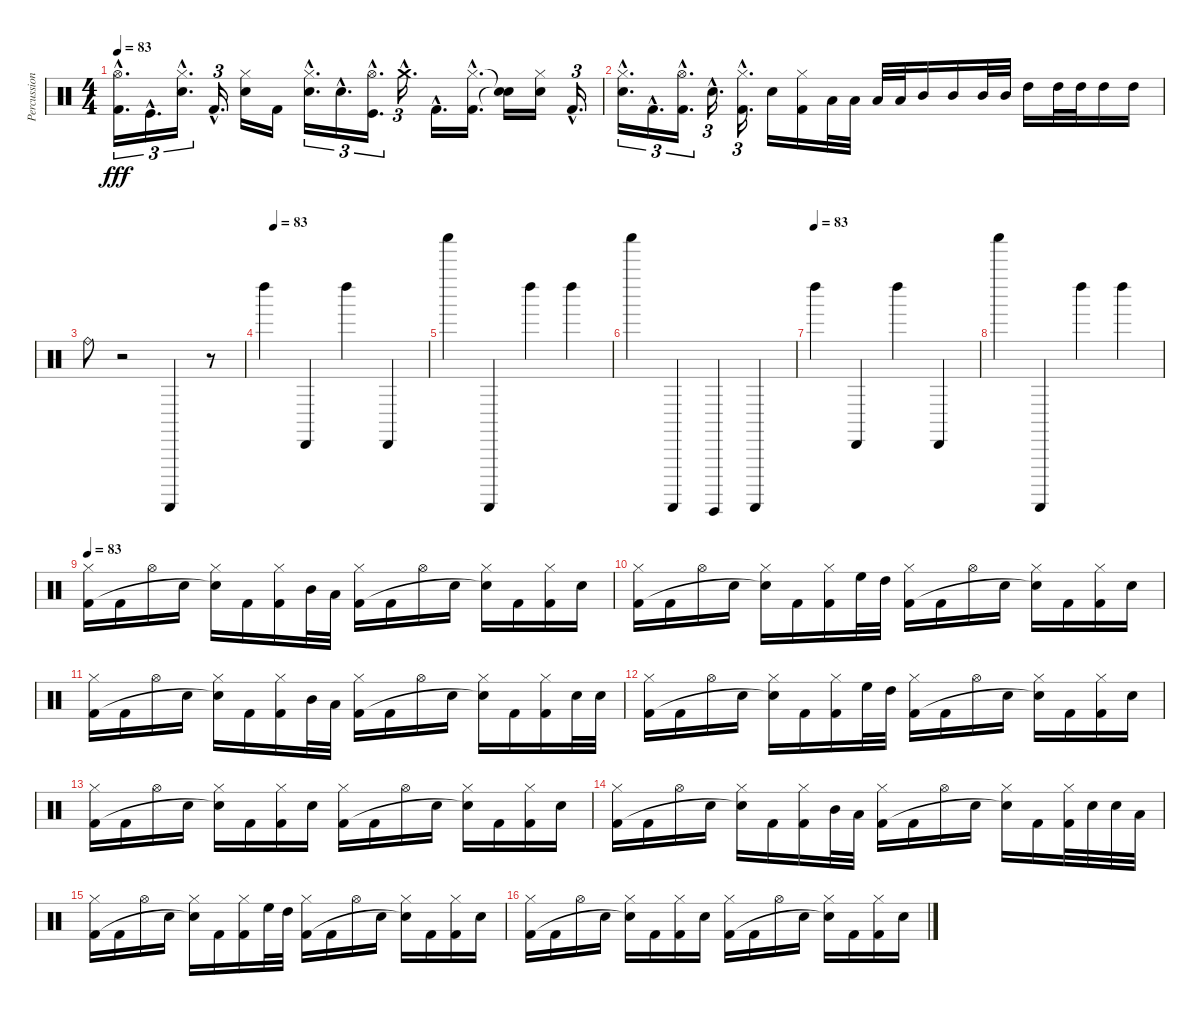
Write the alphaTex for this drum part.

\track ("Percussion" "Percussion") {instrument percussion}
\staff {score}
\articulation defaults
\ts (4 4)
\tempo 83
\clef neutral
\ks c
("Hi-Hat (open)"{hac} "Kick (hit) 2"{hac}).16{d tu (3 2) dy fff} "Kick (hit)"{hac}.16{d tu (3 2)} ("Hi-Hat (closed)"{hac} "Snare (hit) 2"{hac}).16{d tu (3 2)} "Kick (hit) 2"{hac}.16{d tu (3 2)} ("Hi-Hat (closed)" "Snare (hit) 2").16 "Kick (hit) 2".16 ("Hi-Hat (closed)"{hac} "Snare (hit) 2"{hac}).16{d tu (3 2)} "Snare (hit) 2"{hac}.16{d tu (3 2)} ("Hi-Hat (open)"{hac} "Kick (hit)"{hac}).16{d tu (3 2)} "Crash medium (hit)"{hac}.16{d tu (3 2)} "Kick (hit) 2"{hac}.16{d} ("Hi-Hat (closed)"{hac} "Kick (hit) 2"{hac}).16{d} ("Snare (hit)"{t} "Snare (hit)"{t}).16 ("Hi-Hat (closed)" "Snare (hit) 2").16 "Kick (hit) 2"{hac}.16{d tu (3 2)} |
("Hi-Hat (closed)"{hac} "Snare (hit) 2"{hac}).16{d tu (3 2)} "Kick (hit) 2"{hac}.16{d tu (3 2)} ("Hi-Hat (open)"{hac} "Kick (hit) 2"{hac}).16{d tu (3 2)} "Snare (hit) 2"{hac}.16{d tu (3 2)} ("Hi-Hat (closed)"{hac} "Kick (hit) 2"{hac}).16{d tu (3 2)} "Snare (hit) 2".16 ("Hi-Hat (closed)" "Kick (hit) 2").16 "Low Tom (hit)".32 "Low Tom (hit)".32 "Low Tom (hit)".32 "Low Tom (hit)".32 "Mid Tom (hit)".16 "Mid Tom (hit)".16 "Mid Tom (hit)".32 "Mid Tom (hit)".32 "High Tom (hit)".16 "High Tom (hit)".32 "High Tom (hit)".32 "High Tom (hit)".16 "High Tom (hit)".16 |
"Ride (bell)".8 r.2 "Guiro (scrap-return)".4 r.8 |
\tempo (83 0.0625)
"Left Maraca (hit)".4 "Cabasa (hit)".4 "Left Maraca (hit)".4 "Cabasa (hit)".4 |
"Shaker (hit)".4 "Guiro (scrap-return)".4 "Left Maraca (hit)".4 "Left Maraca (hit)".4 |
"Shaker (hit)".4 "Guiro (scrap-return)".4 "Guiro (hit)".4 "Guiro (scrap-return)".4 |
\tempo (83)
"Left Maraca (hit)".4 "Cabasa (hit)".4 "Left Maraca (hit)".4 "Cabasa (hit)".4 |
"Shaker (hit)".4 "Guiro (scrap-return)".4 "Left Maraca (hit)".4 "Left Maraca (hit)".4 |
\tempo 83
("Hi-Hat (closed)" "Kick (hit) 2").16 "Kick (hit) 2".16 "Hi-Hat (open)".16 "Snare (hit) 2".16 ("Hi-Hat (closed)" "Snare (hit)"{t}).16 "Kick (hit) 2".16 ("Hi-Hat (closed)" "Kick (hit) 2").16 "Mid Tom (hit)".32 "Low Tom (hit)".32 ("Hi-Hat (closed)" "Kick (hit) 2").16 "Kick (hit) 2".16 "Hi-Hat (open)".16 "Snare (hit) 2".16 ("Hi-Hat (closed)" "Snare (hit)"{t}).16 "Kick (hit) 2".16 ("Hi-Hat (closed)" "Kick (hit) 2").16 "Snare (hit) 2".16 |
("Hi-Hat (closed)" "Kick (hit) 2").16 "Kick (hit) 2".16 "Hi-Hat (open)".16 "Snare (hit) 2".16 ("Hi-Hat (closed)" "Snare (hit)"{t}).16 "Kick (hit) 2".16 ("Hi-Hat (closed)" "Kick (hit) 2").16 "High Floor Tom (hit)".32 "High Tom (hit)".32 ("Hi-Hat (closed)" "Kick (hit) 2").16 "Kick (hit) 2".16 "Hi-Hat (open)".16 "Snare (hit) 2".16 ("Hi-Hat (closed)" "Snare (hit)"{t}).16 "Kick (hit) 2".16 ("Hi-Hat (closed)" "Kick (hit) 2").16 "Snare (hit) 2".16 |
("Hi-Hat (closed)" "Kick (hit) 2").16 "Kick (hit) 2".16 "Hi-Hat (open)".16 "Snare (hit) 2".16 ("Hi-Hat (closed)" "Snare (hit)"{t}).16 "Kick (hit) 2".16 ("Hi-Hat (closed)" "Kick (hit) 2").16 "Mid Tom (hit)".32 "Low Tom (hit)".32 ("Hi-Hat (closed)" "Kick (hit) 2").16 "Kick (hit) 2".16 "Hi-Hat (open)".16 "Snare (hit) 2".16 ("Hi-Hat (closed)" "Snare (hit)"{t}).16 "Kick (hit) 2".16 ("Hi-Hat (closed)" "Kick (hit) 2").16 "Snare (hit) 2".32 "Snare (hit) 2".32 |
("Hi-Hat (closed)" "Kick (hit) 2").16 "Kick (hit) 2".16 "Hi-Hat (open)".16 "Snare (hit) 2".16 ("Hi-Hat (closed)" "Snare (hit)"{t}).16 "Kick (hit) 2".16 ("Hi-Hat (closed)" "Kick (hit) 2").16 "High Floor Tom (hit)".32 "High Tom (hit)".32 ("Hi-Hat (closed)" "Kick (hit) 2").16 "Kick (hit) 2".16 "Hi-Hat (open)".16 "Snare (hit) 2".16 ("Hi-Hat (closed)" "Snare (hit)"{t}).16 "Kick (hit) 2".16 ("Hi-Hat (closed)" "Kick (hit) 2").16 "Snare (hit) 2".16 |
("Hi-Hat (closed)" "Kick (hit) 2").16 "Kick (hit) 2".16 "Hi-Hat (open)".16 "Snare (hit) 2".16 ("Hi-Hat (closed)" "Snare (hit)"{t}).16 "Kick (hit) 2".16 ("Hi-Hat (closed)" "Kick (hit) 2").16 "Snare (hit) 2".16 ("Hi-Hat (closed)" "Kick (hit) 2").16 "Kick (hit) 2".16 "Hi-Hat (open)".16 "Snare (hit) 2".16 ("Hi-Hat (closed)" "Snare (hit)"{t}).16 "Kick (hit) 2".16 ("Hi-Hat (closed)" "Kick (hit) 2").16 "Snare (hit) 2".16 |
("Hi-Hat (closed)" "Kick (hit) 2").16 "Kick (hit) 2".16 "Hi-Hat (open)".16 "Snare (hit) 2".16 ("Hi-Hat (closed)" "Snare (hit)"{t}).16 "Kick (hit) 2".16 ("Hi-Hat (closed)" "Kick (hit) 2").16 "Mid Tom (hit)".32 "Low Tom (hit)".32 ("Hi-Hat (closed)" "Kick (hit) 2").16 "Kick (hit) 2".16 "Hi-Hat (open)".16 "Snare (hit) 2".16 ("Hi-Hat (closed)" "Snare (hit)"{t}).16 "Kick (hit) 2".16 ("Hi-Hat (closed)" "Kick (hit) 2").32 "Snare (hit) 2".32 "Snare (hit) 2".32 "Low Floor Tom (hit)".32 |
("Hi-Hat (closed)" "Kick (hit) 2").16 "Kick (hit) 2".16 "Hi-Hat (open)".16 "Snare (hit) 2".16 ("Hi-Hat (closed)" "Snare (hit)"{t}).16 "Kick (hit) 2".16 ("Hi-Hat (closed)" "Kick (hit) 2").16 "High Floor Tom (hit)".32 "High Tom (hit)".32 ("Hi-Hat (closed)" "Kick (hit) 2").16 "Kick (hit) 2".16 "Hi-Hat (open)".16 "Snare (hit) 2".16 ("Hi-Hat (closed)" "Snare (hit)"{t}).16 "Kick (hit) 2".16 ("Hi-Hat (closed)" "Kick (hit) 2").16 "Snare (hit) 2".16 |
("Hi-Hat (closed)" "Kick (hit) 2").16 "Kick (hit) 2".16 "Hi-Hat (open)".16 "Snare (hit) 2".16 ("Hi-Hat (closed)" "Snare (hit)"{t}).16 "Kick (hit) 2".16 ("Hi-Hat (closed)" "Kick (hit) 2").16 "Snare (hit) 2".16 ("Hi-Hat (closed)" "Kick (hit) 2").16 "Kick (hit) 2".16 "Hi-Hat (open)".16 "Snare (hit) 2".16 ("Hi-Hat (closed)" "Snare (hit)"{t}).16 "Kick (hit) 2".16 ("Hi-Hat (closed)" "Kick (hit) 2").16 "Snare (hit) 2".16
